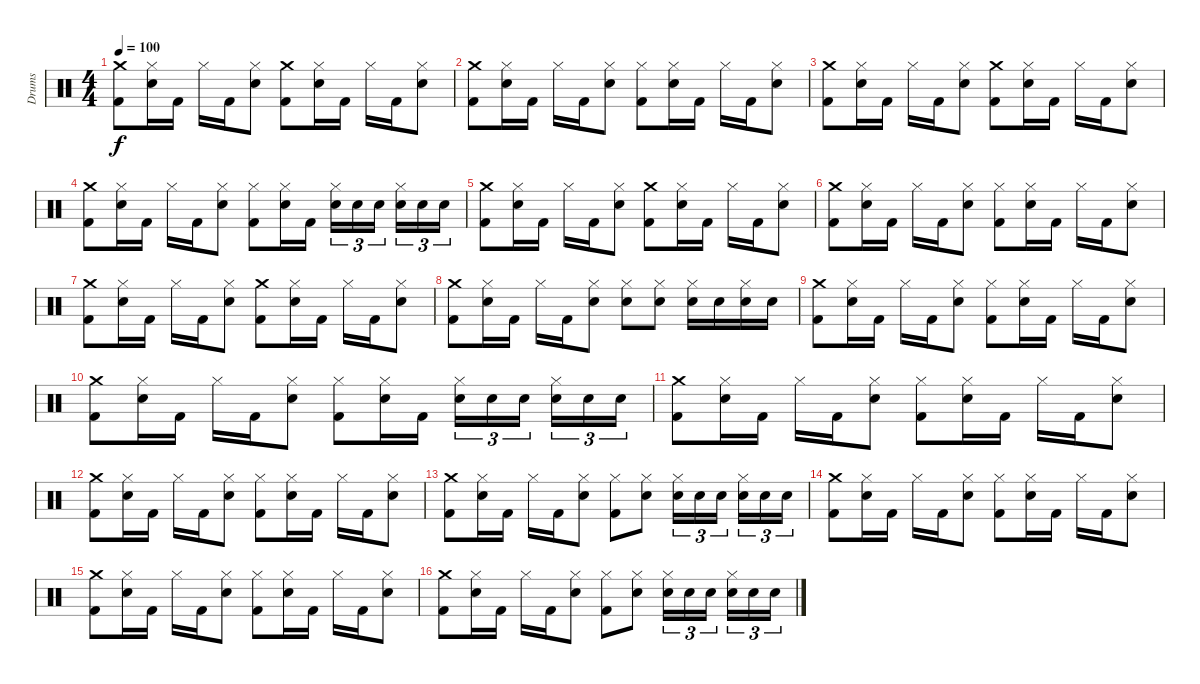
\track ("Drums" "Drums") {instrument percussion}
\staff {score}
\articulation defaults
\ts (4 4)
\tempo 100
\clef neutral
\ks c
("Crash medium (hit)" "Kick (hit) 2").8{dy f} ("Hi-Hat (closed)" "Snare (hit) 2").16 "Kick (hit) 2".16 "Hi-Hat (closed)".16 "Kick (hit) 2".16 ("Hi-Hat (closed)" "Snare (hit) 2").8 ("Crash medium (hit)" "Kick (hit) 2").8 ("Hi-Hat (closed)" "Snare (hit) 2").16 "Kick (hit) 2".16 "Hi-Hat (closed)".16 "Kick (hit) 2".16 ("Hi-Hat (closed)" "Snare (hit) 2").8 |
("Crash medium (hit)" "Kick (hit) 2").8 ("Hi-Hat (closed)" "Snare (hit) 2").16 "Kick (hit) 2".16 "Hi-Hat (closed)".16 "Kick (hit) 2".16 ("Hi-Hat (closed)" "Snare (hit) 2").8 ("Hi-Hat (closed)" "Kick (hit) 2").8 ("Hi-Hat (closed)" "Snare (hit) 2").16 "Kick (hit) 2".16 "Hi-Hat (closed)".16 "Kick (hit) 2".16 ("Hi-Hat (closed)" "Snare (hit) 2").8 |
("Crash medium (hit)" "Kick (hit) 2").8 ("Hi-Hat (closed)" "Snare (hit) 2").16 "Kick (hit) 2".16 "Hi-Hat (closed)".16 "Kick (hit) 2".16 ("Hi-Hat (closed)" "Snare (hit) 2").8 ("Crash medium (hit)" "Kick (hit) 2").8 ("Hi-Hat (closed)" "Snare (hit) 2").16 "Kick (hit) 2".16 "Hi-Hat (closed)".16 "Kick (hit) 2".16 ("Hi-Hat (closed)" "Snare (hit) 2").8 |
("Crash medium (hit)" "Kick (hit) 2").8 ("Hi-Hat (closed)" "Snare (hit) 2").16 "Kick (hit) 2".16 "Hi-Hat (closed)".16 "Kick (hit) 2".16 ("Hi-Hat (closed)" "Snare (hit) 2").8 ("Hi-Hat (closed)" "Kick (hit) 2").8 ("Hi-Hat (closed)" "Snare (hit) 2").16 "Kick (hit) 2".16 ("Snare (hit) 2" "Hi-Hat (closed)").16{tu (3 2)} "Snare (hit) 2".16{tu (3 2)} "Snare (hit) 2".16{tu (3 2)} ("Snare (hit) 2" "Hi-Hat (closed)").16{tu (3 2)} "Snare (hit) 2".16{tu (3 2)} "Snare (hit) 2".16{tu (3 2)} |
("Crash medium (hit)" "Kick (hit) 2").8 ("Hi-Hat (closed)" "Snare (hit) 2").16 "Kick (hit) 2".16 "Hi-Hat (closed)".16 "Kick (hit) 2".16 ("Hi-Hat (closed)" "Snare (hit) 2").8 ("Crash medium (hit)" "Kick (hit) 2").8 ("Hi-Hat (closed)" "Snare (hit) 2").16 "Kick (hit) 2".16 "Hi-Hat (closed)".16 "Kick (hit) 2".16 ("Hi-Hat (closed)" "Snare (hit) 2").8 |
("Crash medium (hit)" "Kick (hit) 2").8 ("Hi-Hat (closed)" "Snare (hit) 2").16 "Kick (hit) 2".16 "Hi-Hat (closed)".16 "Kick (hit) 2".16 ("Hi-Hat (closed)" "Snare (hit) 2").8 ("Hi-Hat (closed)" "Kick (hit) 2").8 ("Hi-Hat (closed)" "Snare (hit) 2").16 "Kick (hit) 2".16 "Hi-Hat (closed)".16 "Kick (hit) 2".16 ("Hi-Hat (closed)" "Snare (hit) 2").8 |
("Crash medium (hit)" "Kick (hit) 2").8 ("Hi-Hat (closed)" "Snare (hit) 2").16 "Kick (hit) 2".16 "Hi-Hat (closed)".16 "Kick (hit) 2".16 ("Hi-Hat (closed)" "Snare (hit) 2").8 ("Crash medium (hit)" "Kick (hit) 2").8 ("Hi-Hat (closed)" "Snare (hit) 2").16 "Kick (hit) 2".16 "Hi-Hat (closed)".16 "Kick (hit) 2".16 ("Hi-Hat (closed)" "Snare (hit) 2").8 |
("Crash medium (hit)" "Kick (hit) 2").8 ("Hi-Hat (closed)" "Snare (hit) 2").16 "Kick (hit) 2".16 "Hi-Hat (closed)".16 "Kick (hit) 2".16 ("Hi-Hat (closed)" "Snare (hit) 2").8 ("Hi-Hat (closed)" "Snare (hit) 2").8 ("Snare (hit) 2" "Hi-Hat (closed)").8 ("Snare (hit) 2" "Hi-Hat (closed)").16 "Snare (hit) 2".16 ("Snare (hit) 2" "Hi-Hat (closed)").16 "Snare (hit) 2".16 |
("Crash medium (hit)" "Kick (hit) 2").8 ("Hi-Hat (closed)" "Snare (hit) 2").16 "Kick (hit) 2".16 "Hi-Hat (closed)".16 "Kick (hit) 2".16 ("Hi-Hat (closed)" "Snare (hit) 2").8 ("Hi-Hat (closed)" "Kick (hit) 2").8 ("Hi-Hat (closed)" "Snare (hit) 2").16 "Kick (hit) 2".16 "Hi-Hat (closed)".16 "Kick (hit) 2".16 ("Hi-Hat (closed)" "Snare (hit) 2").8 |
("Crash medium (hit)" "Kick (hit) 2").8 ("Hi-Hat (closed)" "Snare (hit) 2").16 "Kick (hit) 2".16 "Hi-Hat (closed)".16 "Kick (hit) 2".16 ("Hi-Hat (closed)" "Snare (hit) 2").8 ("Hi-Hat (closed)" "Kick (hit) 2").8 ("Hi-Hat (closed)" "Snare (hit) 2").16 "Kick (hit) 2".16 ("Snare (hit) 2" "Hi-Hat (closed)").16{tu (3 2)} "Snare (hit) 2".16{tu (3 2)} "Snare (hit) 2".16{tu (3 2)} ("Snare (hit) 2" "Hi-Hat (closed)").16{tu (3 2)} "Snare (hit) 2".16{tu (3 2)} "Snare (hit) 2".16{tu (3 2)} |
("Crash medium (hit)" "Kick (hit) 2").8 ("Hi-Hat (closed)" "Snare (hit) 2").16 "Kick (hit) 2".16 "Hi-Hat (closed)".16 "Kick (hit) 2".16 ("Hi-Hat (closed)" "Snare (hit) 2").8 ("Hi-Hat (closed)" "Kick (hit) 2").8 ("Hi-Hat (closed)" "Snare (hit) 2").16 "Kick (hit) 2".16 "Hi-Hat (closed)".16 "Kick (hit) 2".16 ("Hi-Hat (closed)" "Snare (hit) 2").8 |
("Crash medium (hit)" "Kick (hit) 2").8 ("Hi-Hat (closed)" "Snare (hit) 2").16 "Kick (hit) 2".16 "Hi-Hat (closed)".16 "Kick (hit) 2".16 ("Hi-Hat (closed)" "Snare (hit) 2").8 ("Hi-Hat (closed)" "Kick (hit) 2").8 ("Hi-Hat (closed)" "Snare (hit) 2").16 "Kick (hit) 2".16 "Hi-Hat (closed)".16 "Kick (hit) 2".16 ("Hi-Hat (closed)" "Snare (hit) 2").8 |
("Crash medium (hit)" "Kick (hit) 2").8 ("Hi-Hat (closed)" "Snare (hit) 2").16 "Kick (hit) 2".16 "Hi-Hat (closed)".16 "Kick (hit) 2".16 ("Hi-Hat (closed)" "Snare (hit) 2").8 ("Hi-Hat (closed)" "Kick (hit) 2").8 ("Hi-Hat (closed)" "Snare (hit) 2").8 ("Snare (hit) 2" "Hi-Hat (closed)").16{tu (3 2)} "Snare (hit) 2".16{tu (3 2)} "Snare (hit) 2".16{tu (3 2)} ("Snare (hit) 2" "Hi-Hat (closed)").16{tu (3 2)} "Snare (hit) 2".16{tu (3 2)} "Snare (hit) 2".16{tu (3 2)} |
("Crash medium (hit)" "Kick (hit) 2").8 ("Hi-Hat (closed)" "Snare (hit) 2").16 "Kick (hit) 2".16 "Hi-Hat (closed)".16 "Kick (hit) 2".16 ("Hi-Hat (closed)" "Snare (hit) 2").8 ("Hi-Hat (closed)" "Kick (hit) 2").8 ("Hi-Hat (closed)" "Snare (hit) 2").16 "Kick (hit) 2".16 "Hi-Hat (closed)".16 "Kick (hit) 2".16 ("Hi-Hat (closed)" "Snare (hit) 2").8 |
("Crash medium (hit)" "Kick (hit) 2").8 ("Hi-Hat (closed)" "Snare (hit) 2").16 "Kick (hit) 2".16 "Hi-Hat (closed)".16 "Kick (hit) 2".16 ("Hi-Hat (closed)" "Snare (hit) 2").8 ("Hi-Hat (closed)" "Kick (hit) 2").8 ("Hi-Hat (closed)" "Snare (hit) 2").16 "Kick (hit) 2".16 "Hi-Hat (closed)".16 "Kick (hit) 2".16 ("Hi-Hat (closed)" "Snare (hit) 2").8 |
("Crash medium (hit)" "Kick (hit) 2").8 ("Hi-Hat (closed)" "Snare (hit) 2").16 "Kick (hit) 2".16 "Hi-Hat (closed)".16 "Kick (hit) 2".16 ("Hi-Hat (closed)" "Snare (hit) 2").8 ("Hi-Hat (closed)" "Kick (hit) 2").8 ("Hi-Hat (closed)" "Snare (hit) 2").8 ("Snare (hit) 2" "Hi-Hat (closed)").16{tu (3 2)} "Snare (hit) 2".16{tu (3 2)} "Snare (hit) 2".16{tu (3 2)} ("Snare (hit) 2" "Hi-Hat (closed)").16{tu (3 2)} "Snare (hit) 2".16{tu (3 2)} "Snare (hit) 2".16{tu (3 2)}
